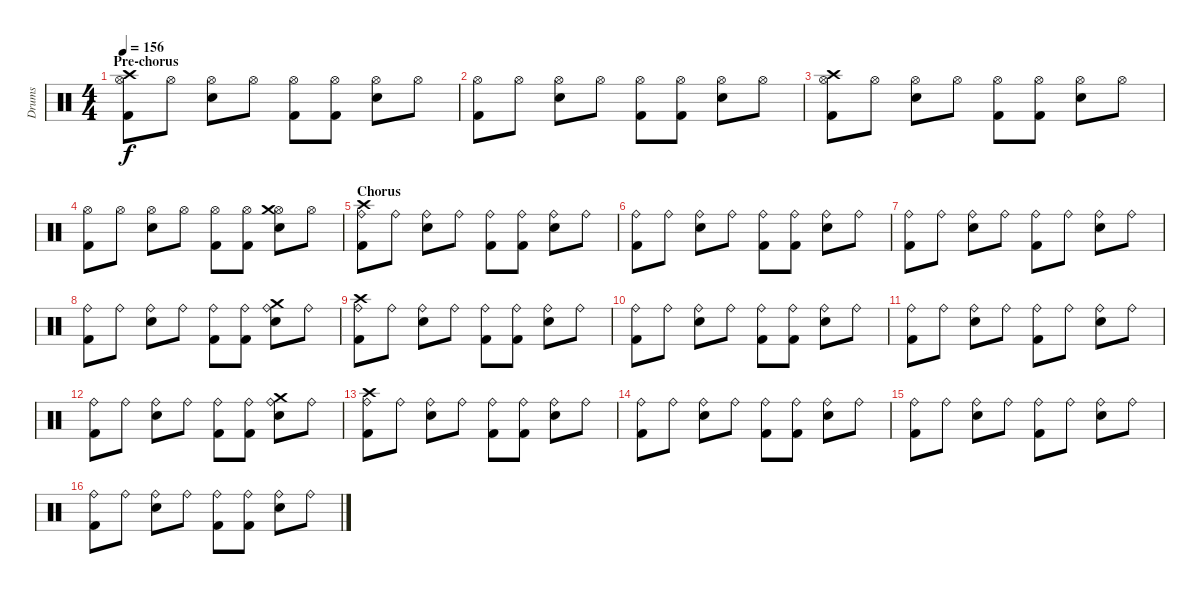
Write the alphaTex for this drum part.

\track ("Drums" "Drums") {instrument percussion}
\staff {score}
\articulation defaults
\ts (4 4)
\section ("" "Pre-chorus")
\tempo 156
\clef neutral
\ks c
("Hi-Hat (open)" "Kick (hit) 2" "Crash high (hit)").8{dy f} "Hi-Hat (open)".8 ("Hi-Hat (open)" "Electric Snare (hit)").8 "Hi-Hat (open)".8 ("Hi-Hat (open)" "Kick (hit) 2").8 ("Hi-Hat (open)" "Kick (hit) 2").8 ("Hi-Hat (open)" "Electric Snare (hit)").8 "Hi-Hat (open)".8 |
("Hi-Hat (open)" "Kick (hit) 2").8 "Hi-Hat (open)".8 ("Hi-Hat (open)" "Electric Snare (hit)").8 "Hi-Hat (open)".8 ("Hi-Hat (open)" "Kick (hit) 2").8 ("Hi-Hat (open)" "Kick (hit) 2").8 ("Hi-Hat (open)" "Electric Snare (hit)").8 "Hi-Hat (open)".8 |
("Hi-Hat (open)" "Kick (hit) 2" "Crash high (hit)").8 "Hi-Hat (open)".8 ("Hi-Hat (open)" "Electric Snare (hit)").8 "Hi-Hat (open)".8 ("Hi-Hat (open)" "Kick (hit) 2").8 ("Hi-Hat (open)" "Kick (hit) 2").8 ("Hi-Hat (open)" "Electric Snare (hit)").8 "Hi-Hat (open)".8 |
("Hi-Hat (open)" "Kick (hit) 2").8 "Hi-Hat (open)".8 ("Hi-Hat (open)" "Electric Snare (hit)").8 "Hi-Hat (open)".8 ("Hi-Hat (open)" "Kick (hit) 2").8 ("Hi-Hat (open)" "Kick (hit) 2").8 ("Hi-Hat (open)" "Electric Snare (hit)" "Crash medium (hit)").8 "Hi-Hat (open)".8 |
\section ("" "Chorus")
("Ride (bell)" "Kick (hit) 2" "Crash high (hit)").8 "Ride (bell)".8 ("Ride (bell)" "Electric Snare (hit)").8 "Ride (bell)".8 ("Ride (bell)" "Kick (hit) 2").8 ("Ride (bell)" "Kick (hit) 2").8 ("Ride (bell)" "Electric Snare (hit)").8 "Ride (bell)".8 |
("Ride (bell)" "Kick (hit) 2").8 "Ride (bell)".8 ("Ride (bell)" "Electric Snare (hit)").8 "Ride (bell)".8 ("Ride (bell)" "Kick (hit) 2").8 ("Ride (bell)" "Kick (hit) 2").8 ("Ride (bell)" "Electric Snare (hit)").8 "Ride (bell)".8 |
("Ride (bell)" "Kick (hit) 2").8 "Ride (bell)".8 ("Ride (bell)" "Electric Snare (hit)").8 "Ride (bell)".8 ("Ride (bell)" "Kick (hit) 2").8 "Ride (bell)".8 ("Ride (bell)" "Electric Snare (hit)").8 "Ride (bell)".8 |
("Ride (bell)" "Kick (hit) 2").8 "Ride (bell)".8 ("Ride (bell)" "Electric Snare (hit)").8 "Ride (bell)".8 ("Ride (bell)" "Kick (hit) 2").8 ("Ride (bell)" "Kick (hit) 2").8 ("Ride (bell)" "Electric Snare (hit)" "Crash medium (hit)").8 "Ride (bell)".8 |
("Ride (bell)" "Kick (hit) 2" "Crash high (hit)").8 "Ride (bell)".8 ("Ride (bell)" "Electric Snare (hit)").8 "Ride (bell)".8 ("Ride (bell)" "Kick (hit) 2").8 ("Ride (bell)" "Kick (hit) 2").8 ("Ride (bell)" "Electric Snare (hit)").8 "Ride (bell)".8 |
("Ride (bell)" "Kick (hit) 2").8 "Ride (bell)".8 ("Ride (bell)" "Electric Snare (hit)").8 "Ride (bell)".8 ("Ride (bell)" "Kick (hit) 2").8 ("Ride (bell)" "Kick (hit) 2").8 ("Ride (bell)" "Electric Snare (hit)").8 "Ride (bell)".8 |
("Ride (bell)" "Kick (hit) 2").8 "Ride (bell)".8 ("Ride (bell)" "Electric Snare (hit)").8 "Ride (bell)".8 ("Ride (bell)" "Kick (hit) 2").8 "Ride (bell)".8 ("Ride (bell)" "Electric Snare (hit)").8 "Ride (bell)".8 |
("Ride (bell)" "Kick (hit) 2").8 "Ride (bell)".8 ("Ride (bell)" "Electric Snare (hit)").8 "Ride (bell)".8 ("Ride (bell)" "Kick (hit) 2").8 ("Ride (bell)" "Kick (hit) 2").8 ("Ride (bell)" "Electric Snare (hit)" "Crash medium (hit)").8 "Ride (bell)".8 |
("Ride (bell)" "Kick (hit) 2" "Crash high (hit)").8 "Ride (bell)".8 ("Ride (bell)" "Electric Snare (hit)").8 "Ride (bell)".8 ("Ride (bell)" "Kick (hit) 2").8 ("Ride (bell)" "Kick (hit) 2").8 ("Ride (bell)" "Electric Snare (hit)").8 "Ride (bell)".8 |
("Ride (bell)" "Kick (hit) 2").8 "Ride (bell)".8 ("Ride (bell)" "Electric Snare (hit)").8 "Ride (bell)".8 ("Ride (bell)" "Kick (hit) 2").8 ("Ride (bell)" "Kick (hit) 2").8 ("Ride (bell)" "Electric Snare (hit)").8 "Ride (bell)".8 |
("Ride (bell)" "Kick (hit) 2").8 "Ride (bell)".8 ("Ride (bell)" "Electric Snare (hit)").8 "Ride (bell)".8 ("Ride (bell)" "Kick (hit) 2").8 "Ride (bell)".8 ("Ride (bell)" "Electric Snare (hit)").8 "Ride (bell)".8 |
("Ride (bell)" "Kick (hit) 2").8 "Ride (bell)".8 ("Ride (bell)" "Electric Snare (hit)").8 "Ride (bell)".8 ("Ride (bell)" "Kick (hit) 2").8 ("Ride (bell)" "Kick (hit) 2").8 ("Ride (bell)" "Electric Snare (hit)").8 "Ride (bell)".8
